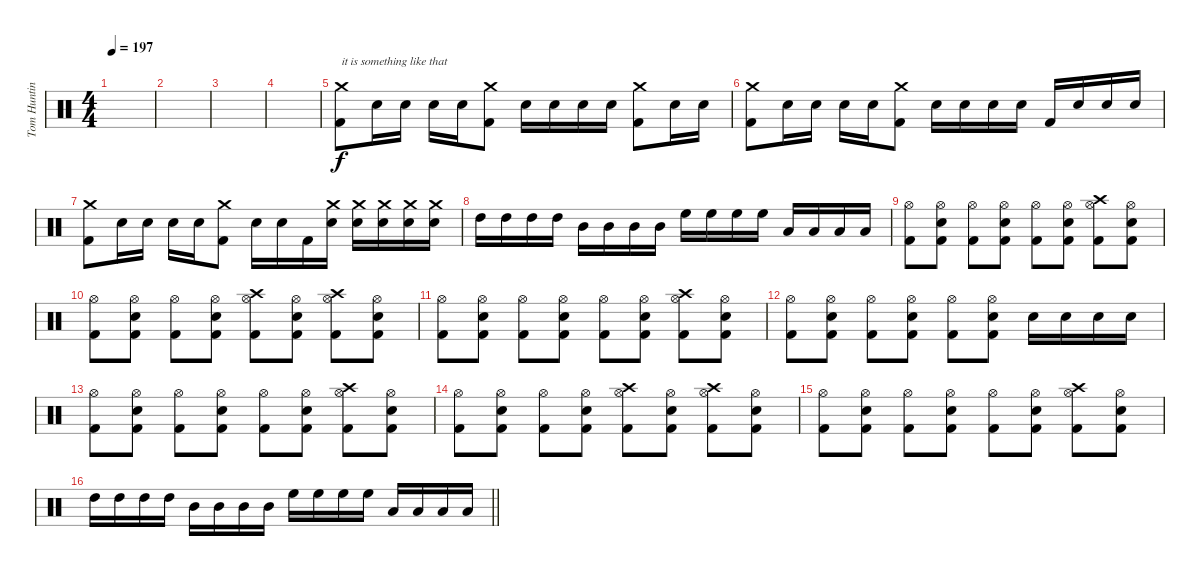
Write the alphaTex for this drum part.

\track ("Tom Hunting" "Tom Huntin") {instrument percussion}
\staff {score}
\articulation defaults
\ts (4 4)
\tempo 197
\clef neutral
\ks c
|
|
|
|
("Crash medium (hit)" "Kick (hit) 2").8{txt "it is something like that"} "Snare (hit) 2".16 "Snare (hit) 2".16 "Snare (hit) 2".16 "Snare (hit) 2".16 ("Crash medium (hit)" "Kick (hit) 2").8 "Snare (hit) 2".16 "Snare (hit) 2".16 "Snare (hit) 2".16 "Snare (hit) 2".16 ("Crash medium (hit)" "Kick (hit) 2").8 "Snare (hit) 2".16 "Snare (hit) 2".16 |
("Crash medium (hit)" "Kick (hit) 2").8 "Snare (hit) 2".16 "Snare (hit) 2".16 "Snare (hit) 2".16 "Snare (hit) 2".16 ("Crash medium (hit)" "Kick (hit) 2").8 "Snare (hit) 2".16 "Snare (hit) 2".16 "Snare (hit) 2".16 "Snare (hit) 2".16 "Kick (hit) 2".16 "Snare (hit) 2".16 "Snare (hit) 2".16 "Snare (hit) 2".16 |
("Crash medium (hit)" "Kick (hit) 2").8 "Snare (hit) 2".16 "Snare (hit) 2".16 "Snare (hit) 2".16 "Snare (hit) 2".16 ("Crash medium (hit)" "Kick (hit) 2").8 "Snare (hit) 2".16 "Snare (hit) 2".16 "Kick (hit) 2".16 ("Crash medium (hit)" "Snare (hit) 2").16 ("Crash medium (hit)" "Snare (hit) 2").16 ("Crash medium (hit)" "Snare (hit) 2").16 ("Crash medium (hit)" "Snare (hit) 2").16 ("Crash medium (hit)" "Snare (hit) 2").16 |
"High Tom (hit)".16 "High Tom (hit)".16 "High Tom (hit)".16 "High Tom (hit)".16 "Mid Tom (hit)".16 "Mid Tom (hit)".16 "Mid Tom (hit)".16 "Mid Tom (hit)".16 "High Floor Tom (hit)".16 "High Floor Tom (hit)".16 "High Floor Tom (hit)".16 "High Floor Tom (hit)".16 "Low Tom (hit)".16 "Low Tom (hit)".16 "Low Tom (hit)".16 "Low Tom (hit)".16 |
("Hi-Hat (open)" "Kick (hit) 2").8 ("Hi-Hat (open)" "Snare (hit) 2" "Kick (hit) 2").8 ("Hi-Hat (open)" "Kick (hit) 2").8 ("Hi-Hat (open)" "Snare (hit) 2" "Kick (hit) 2").8 ("Hi-Hat (open)" "Kick (hit) 2").8 ("Hi-Hat (open)" "Snare (hit) 2" "Kick (hit) 2").8 ("Crash high (hit)" "Hi-Hat (open)" "Kick (hit) 2").8 ("Hi-Hat (open)" "Snare (hit) 2" "Kick (hit) 2").8 |
("Hi-Hat (open)" "Kick (hit) 2").8 ("Hi-Hat (open)" "Snare (hit) 2" "Kick (hit) 2").8 ("Hi-Hat (open)" "Kick (hit) 2").8 ("Hi-Hat (open)" "Snare (hit) 2" "Kick (hit) 2").8 ("Crash high (hit)" "Hi-Hat (open)" "Kick (hit) 2").8 ("Hi-Hat (open)" "Snare (hit) 2" "Kick (hit) 2").8 ("Crash high (hit)" "Hi-Hat (open)" "Kick (hit) 2").8 ("Hi-Hat (open)" "Snare (hit) 2" "Kick (hit) 2").8 |
("Hi-Hat (open)" "Kick (hit) 2").8 ("Hi-Hat (open)" "Snare (hit) 2" "Kick (hit) 2").8 ("Hi-Hat (open)" "Kick (hit) 2").8 ("Hi-Hat (open)" "Snare (hit) 2" "Kick (hit) 2").8 ("Hi-Hat (open)" "Kick (hit) 2").8 ("Hi-Hat (open)" "Snare (hit) 2" "Kick (hit) 2").8 ("Crash high (hit)" "Hi-Hat (open)" "Kick (hit) 2").8 ("Hi-Hat (open)" "Snare (hit) 2" "Kick (hit) 2").8 |
("Hi-Hat (open)" "Kick (hit) 2").8 ("Hi-Hat (open)" "Snare (hit) 2" "Kick (hit) 2").8 ("Hi-Hat (open)" "Kick (hit) 2").8 ("Hi-Hat (open)" "Snare (hit) 2" "Kick (hit) 2").8 ("Hi-Hat (open)" "Kick (hit) 2").8 ("Hi-Hat (open)" "Snare (hit) 2" "Kick (hit) 2").8 "Snare (hit) 2".16 "Snare (hit) 2".16 "Snare (hit) 2".16 "Snare (hit) 2".16 |
("Hi-Hat (open)" "Kick (hit) 2").8 ("Hi-Hat (open)" "Snare (hit) 2" "Kick (hit) 2").8 ("Hi-Hat (open)" "Kick (hit) 2").8 ("Hi-Hat (open)" "Snare (hit) 2" "Kick (hit) 2").8 ("Hi-Hat (open)" "Kick (hit) 2").8 ("Hi-Hat (open)" "Snare (hit) 2" "Kick (hit) 2").8 ("Crash high (hit)" "Hi-Hat (open)" "Kick (hit) 2").8 ("Hi-Hat (open)" "Snare (hit) 2" "Kick (hit) 2").8 |
("Hi-Hat (open)" "Kick (hit) 2").8 ("Hi-Hat (open)" "Snare (hit) 2" "Kick (hit) 2").8 ("Hi-Hat (open)" "Kick (hit) 2").8 ("Hi-Hat (open)" "Snare (hit) 2" "Kick (hit) 2").8 ("Crash high (hit)" "Hi-Hat (open)" "Kick (hit) 2").8 ("Hi-Hat (open)" "Snare (hit) 2" "Kick (hit) 2").8 ("Crash high (hit)" "Hi-Hat (open)" "Kick (hit) 2").8 ("Hi-Hat (open)" "Snare (hit) 2" "Kick (hit) 2").8 |
("Hi-Hat (open)" "Kick (hit) 2").8 ("Hi-Hat (open)" "Snare (hit) 2" "Kick (hit) 2").8 ("Hi-Hat (open)" "Kick (hit) 2").8 ("Hi-Hat (open)" "Snare (hit) 2" "Kick (hit) 2").8 ("Hi-Hat (open)" "Kick (hit) 2").8 ("Hi-Hat (open)" "Snare (hit) 2" "Kick (hit) 2").8 ("Crash high (hit)" "Hi-Hat (open)" "Kick (hit) 2").8 ("Hi-Hat (open)" "Snare (hit) 2" "Kick (hit) 2").8 |
\barLineRight lightlight "High Tom (hit)".16 "High Tom (hit)".16 "High Tom (hit)".16 "High Tom (hit)".16 "Mid Tom (hit)".16 "Mid Tom (hit)".16 "Mid Tom (hit)".16 "Mid Tom (hit)".16 "High Floor Tom (hit)".16 "High Floor Tom (hit)".16 "High Floor Tom (hit)".16 "High Floor Tom (hit)".16 "Low Tom (hit)".16 "Low Tom (hit)".16 "Low Tom (hit)".16 "Low Tom (hit)".16
